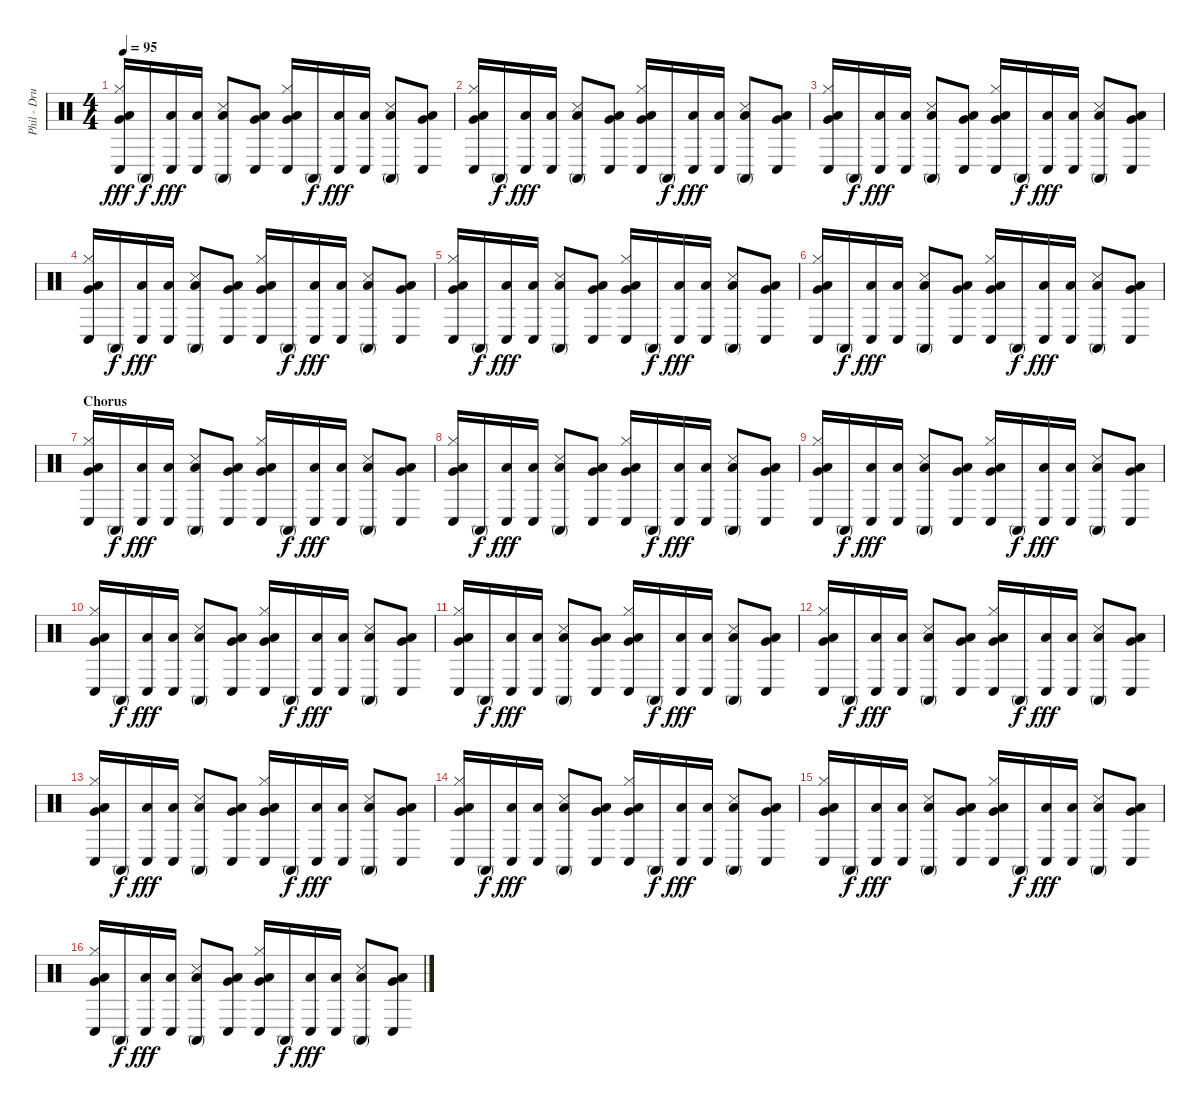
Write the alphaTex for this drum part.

\track ("Phil - Drums" "Phil - Dru") {instrument percussion}
\staff {score}
\articulation defaults
\ts (4 4)
\tempo 95
\clef neutral
\ks c
("Hi-Hat (closed)" "Conga low (hit)" "Low Floor Tom (hit)" "Very Low Tom (hit)").16{dy fff} "Conga high (mute)".16{dy f} ("Conga low (hit)" "Low Tom (hit)").16{dy fff} ("Conga low (hit)" "Low Tom (hit)").16 ("Conga high (mute)" "Snare (side stick) 3" "Low Tom (hit)").8 ("Conga low (hit)" "Low Floor Tom (hit)" "Very Low Tom (hit)").8 ("Hi-Hat (closed)" "Conga low (hit)" "Low Floor Tom (hit)" "Very Low Tom (hit)").16 "Conga high (mute)".16{dy f} ("Conga low (hit)" "Low Tom (hit)").16{dy fff} ("Conga low (hit)" "Low Tom (hit)").16 ("Conga high (mute)" "Snare (side stick) 3" "Low Tom (hit)").8 ("Conga low (hit)" "Low Floor Tom (hit)" "Very Low Tom (hit)").8 |
("Hi-Hat (closed)" "Conga low (hit)" "Low Floor Tom (hit)" "Very Low Tom (hit)").16 "Conga high (mute)".16{dy f} ("Conga low (hit)" "Low Tom (hit)").16{dy fff} ("Conga low (hit)" "Low Tom (hit)").16 ("Conga high (mute)" "Snare (side stick) 3" "Low Tom (hit)").8 ("Conga low (hit)" "Low Floor Tom (hit)" "Very Low Tom (hit)").8 ("Hi-Hat (closed)" "Conga low (hit)" "Low Floor Tom (hit)" "Very Low Tom (hit)").16 "Conga high (mute)".16{dy f} ("Conga low (hit)" "Low Tom (hit)").16{dy fff} ("Conga low (hit)" "Low Tom (hit)").16 ("Conga high (mute)" "Snare (side stick) 3" "Low Tom (hit)").8 ("Conga low (hit)" "Low Floor Tom (hit)" "Very Low Tom (hit)").8 |
("Hi-Hat (closed)" "Conga low (hit)" "Low Floor Tom (hit)" "Very Low Tom (hit)").16 "Conga high (mute)".16{dy f} ("Conga low (hit)" "Low Tom (hit)").16{dy fff} ("Conga low (hit)" "Low Tom (hit)").16 ("Conga high (mute)" "Snare (side stick) 3" "Low Tom (hit)").8 ("Conga low (hit)" "Low Floor Tom (hit)" "Very Low Tom (hit)").8 ("Hi-Hat (closed)" "Conga low (hit)" "Low Floor Tom (hit)" "Very Low Tom (hit)").16 "Conga high (mute)".16{dy f} ("Conga low (hit)" "Low Tom (hit)").16{dy fff} ("Conga low (hit)" "Low Tom (hit)").16 ("Conga high (mute)" "Snare (side stick) 3" "Low Tom (hit)").8 ("Conga low (hit)" "Low Floor Tom (hit)" "Very Low Tom (hit)").8 |
("Hi-Hat (closed)" "Conga low (hit)" "Low Floor Tom (hit)" "Very Low Tom (hit)").16 "Conga high (mute)".16{dy f} ("Conga low (hit)" "Low Tom (hit)").16{dy fff} ("Conga low (hit)" "Low Tom (hit)").16 ("Conga high (mute)" "Snare (side stick) 3" "Low Tom (hit)").8 ("Conga low (hit)" "Low Floor Tom (hit)" "Very Low Tom (hit)").8 ("Hi-Hat (closed)" "Conga low (hit)" "Low Floor Tom (hit)" "Very Low Tom (hit)").16 "Conga high (mute)".16{dy f} ("Conga low (hit)" "Low Tom (hit)").16{dy fff} ("Conga low (hit)" "Low Tom (hit)").16 ("Conga high (mute)" "Snare (side stick) 3" "Low Tom (hit)").8 ("Conga low (hit)" "Low Floor Tom (hit)" "Very Low Tom (hit)").8 |
("Hi-Hat (closed)" "Conga low (hit)" "Low Floor Tom (hit)" "Very Low Tom (hit)").16 "Conga high (mute)".16{dy f} ("Conga low (hit)" "Low Tom (hit)").16{dy fff} ("Conga low (hit)" "Low Tom (hit)").16 ("Conga high (mute)" "Snare (side stick) 3" "Low Tom (hit)").8 ("Conga low (hit)" "Low Floor Tom (hit)" "Very Low Tom (hit)").8 ("Hi-Hat (closed)" "Conga low (hit)" "Low Floor Tom (hit)" "Very Low Tom (hit)").16 "Conga high (mute)".16{dy f} ("Conga low (hit)" "Low Tom (hit)").16{dy fff} ("Conga low (hit)" "Low Tom (hit)").16 ("Conga high (mute)" "Snare (side stick) 3" "Low Tom (hit)").8 ("Conga low (hit)" "Low Floor Tom (hit)" "Very Low Tom (hit)").8 |
("Hi-Hat (closed)" "Conga low (hit)" "Low Floor Tom (hit)" "Very Low Tom (hit)").16 "Conga high (mute)".16{dy f} ("Conga low (hit)" "Low Tom (hit)").16{dy fff} ("Conga low (hit)" "Low Tom (hit)").16 ("Conga high (mute)" "Snare (side stick) 3" "Low Tom (hit)").8 ("Conga low (hit)" "Low Floor Tom (hit)" "Very Low Tom (hit)").8 ("Hi-Hat (closed)" "Conga low (hit)" "Low Floor Tom (hit)" "Very Low Tom (hit)").16 "Conga high (mute)".16{dy f} ("Conga low (hit)" "Low Tom (hit)").16{dy fff} ("Conga low (hit)" "Low Tom (hit)").16 ("Conga high (mute)" "Snare (side stick) 3" "Low Tom (hit)").8 ("Conga low (hit)" "Low Floor Tom (hit)" "Very Low Tom (hit)").8 |
\section ("" "Chorus")
("Hi-Hat (closed)" "Conga low (hit)" "Low Floor Tom (hit)" "Very Low Tom (hit)").16 "Conga high (mute)".16{dy f} ("Conga low (hit)" "Low Tom (hit)").16{dy fff} ("Conga low (hit)" "Low Tom (hit)").16 ("Conga high (mute)" "Snare (side stick) 3" "Low Tom (hit)").8 ("Conga low (hit)" "Low Floor Tom (hit)" "Very Low Tom (hit)").8 ("Hi-Hat (closed)" "Conga low (hit)" "Low Floor Tom (hit)" "Very Low Tom (hit)").16 "Conga high (mute)".16{dy f} ("Conga low (hit)" "Low Tom (hit)").16{dy fff} ("Conga low (hit)" "Low Tom (hit)").16 ("Conga high (mute)" "Snare (side stick) 3" "Low Tom (hit)").8 ("Conga low (hit)" "Low Floor Tom (hit)" "Very Low Tom (hit)").8 |
("Hi-Hat (closed)" "Conga low (hit)" "Low Floor Tom (hit)" "Very Low Tom (hit)").16 "Conga high (mute)".16{dy f} ("Conga low (hit)" "Low Tom (hit)").16{dy fff} ("Conga low (hit)" "Low Tom (hit)").16 ("Conga high (mute)" "Snare (side stick) 3" "Low Tom (hit)").8 ("Conga low (hit)" "Low Floor Tom (hit)" "Very Low Tom (hit)").8 ("Hi-Hat (closed)" "Conga low (hit)" "Low Floor Tom (hit)" "Very Low Tom (hit)").16 "Conga high (mute)".16{dy f} ("Conga low (hit)" "Low Tom (hit)").16{dy fff} ("Conga low (hit)" "Low Tom (hit)").16 ("Conga high (mute)" "Snare (side stick) 3" "Low Tom (hit)").8 ("Conga low (hit)" "Low Floor Tom (hit)" "Very Low Tom (hit)").8 |
("Hi-Hat (closed)" "Conga low (hit)" "Low Floor Tom (hit)" "Very Low Tom (hit)").16 "Conga high (mute)".16{dy f} ("Conga low (hit)" "Low Tom (hit)").16{dy fff} ("Conga low (hit)" "Low Tom (hit)").16 ("Conga high (mute)" "Snare (side stick) 3" "Low Tom (hit)").8 ("Conga low (hit)" "Low Floor Tom (hit)" "Very Low Tom (hit)").8 ("Hi-Hat (closed)" "Conga low (hit)" "Low Floor Tom (hit)" "Very Low Tom (hit)").16 "Conga high (mute)".16{dy f} ("Conga low (hit)" "Low Tom (hit)").16{dy fff} ("Conga low (hit)" "Low Tom (hit)").16 ("Conga high (mute)" "Snare (side stick) 3" "Low Tom (hit)").8 ("Conga low (hit)" "Low Floor Tom (hit)" "Very Low Tom (hit)").8 |
("Hi-Hat (closed)" "Conga low (hit)" "Low Floor Tom (hit)" "Very Low Tom (hit)").16 "Conga high (mute)".16{dy f} ("Conga low (hit)" "Low Tom (hit)").16{dy fff} ("Conga low (hit)" "Low Tom (hit)").16 ("Conga high (mute)" "Snare (side stick) 3" "Low Tom (hit)").8 ("Conga low (hit)" "Low Floor Tom (hit)" "Very Low Tom (hit)").8 ("Hi-Hat (closed)" "Conga low (hit)" "Low Floor Tom (hit)" "Very Low Tom (hit)").16 "Conga high (mute)".16{dy f} ("Conga low (hit)" "Low Tom (hit)").16{dy fff} ("Conga low (hit)" "Low Tom (hit)").16 ("Conga high (mute)" "Snare (side stick) 3" "Low Tom (hit)").8 ("Conga low (hit)" "Low Floor Tom (hit)" "Very Low Tom (hit)").8 |
("Hi-Hat (closed)" "Conga low (hit)" "Low Floor Tom (hit)" "Very Low Tom (hit)").16 "Conga high (mute)".16{dy f} ("Conga low (hit)" "Low Tom (hit)").16{dy fff} ("Conga low (hit)" "Low Tom (hit)").16 ("Conga high (mute)" "Snare (side stick) 3" "Low Tom (hit)").8 ("Conga low (hit)" "Low Floor Tom (hit)" "Very Low Tom (hit)").8 ("Hi-Hat (closed)" "Conga low (hit)" "Low Floor Tom (hit)" "Very Low Tom (hit)").16 "Conga high (mute)".16{dy f} ("Conga low (hit)" "Low Tom (hit)").16{dy fff} ("Conga low (hit)" "Low Tom (hit)").16 ("Conga high (mute)" "Snare (side stick) 3" "Low Tom (hit)").8 ("Conga low (hit)" "Low Floor Tom (hit)" "Very Low Tom (hit)").8 |
("Hi-Hat (closed)" "Conga low (hit)" "Low Floor Tom (hit)" "Very Low Tom (hit)").16 "Conga high (mute)".16{dy f} ("Conga low (hit)" "Low Tom (hit)").16{dy fff} ("Conga low (hit)" "Low Tom (hit)").16 ("Conga high (mute)" "Snare (side stick) 3" "Low Tom (hit)").8 ("Conga low (hit)" "Low Floor Tom (hit)" "Very Low Tom (hit)").8 ("Hi-Hat (closed)" "Conga low (hit)" "Low Floor Tom (hit)" "Very Low Tom (hit)").16 "Conga high (mute)".16{dy f} ("Conga low (hit)" "Low Tom (hit)").16{dy fff} ("Conga low (hit)" "Low Tom (hit)").16 ("Conga high (mute)" "Snare (side stick) 3" "Low Tom (hit)").8 ("Conga low (hit)" "Low Floor Tom (hit)" "Very Low Tom (hit)").8 |
("Hi-Hat (closed)" "Conga low (hit)" "Low Floor Tom (hit)" "Very Low Tom (hit)").16 "Conga high (mute)".16{dy f} ("Conga low (hit)" "Low Tom (hit)").16{dy fff} ("Conga low (hit)" "Low Tom (hit)").16 ("Conga high (mute)" "Snare (side stick) 3" "Low Tom (hit)").8 ("Conga low (hit)" "Low Floor Tom (hit)" "Very Low Tom (hit)").8 ("Hi-Hat (closed)" "Conga low (hit)" "Low Floor Tom (hit)" "Very Low Tom (hit)").16 "Conga high (mute)".16{dy f} ("Conga low (hit)" "Low Tom (hit)").16{dy fff} ("Conga low (hit)" "Low Tom (hit)").16 ("Conga high (mute)" "Snare (side stick) 3" "Low Tom (hit)").8 ("Conga low (hit)" "Low Floor Tom (hit)" "Very Low Tom (hit)").8 |
("Hi-Hat (closed)" "Conga low (hit)" "Low Floor Tom (hit)" "Very Low Tom (hit)").16 "Conga high (mute)".16{dy f} ("Conga low (hit)" "Low Tom (hit)").16{dy fff} ("Conga low (hit)" "Low Tom (hit)").16 ("Conga high (mute)" "Snare (side stick) 3" "Low Tom (hit)").8 ("Conga low (hit)" "Low Floor Tom (hit)" "Very Low Tom (hit)").8 ("Hi-Hat (closed)" "Conga low (hit)" "Low Floor Tom (hit)" "Very Low Tom (hit)").16 "Conga high (mute)".16{dy f} ("Conga low (hit)" "Low Tom (hit)").16{dy fff} ("Conga low (hit)" "Low Tom (hit)").16 ("Conga high (mute)" "Snare (side stick) 3" "Low Tom (hit)").8 ("Conga low (hit)" "Low Floor Tom (hit)" "Very Low Tom (hit)").8 |
("Hi-Hat (closed)" "Conga low (hit)" "Low Floor Tom (hit)" "Very Low Tom (hit)").16 "Conga high (mute)".16{dy f} ("Conga low (hit)" "Low Tom (hit)").16{dy fff} ("Conga low (hit)" "Low Tom (hit)").16 ("Conga high (mute)" "Snare (side stick) 3" "Low Tom (hit)").8 ("Conga low (hit)" "Low Floor Tom (hit)" "Very Low Tom (hit)").8 ("Hi-Hat (closed)" "Conga low (hit)" "Low Floor Tom (hit)" "Very Low Tom (hit)").16 "Conga high (mute)".16{dy f} ("Conga low (hit)" "Low Tom (hit)").16{dy fff} ("Conga low (hit)" "Low Tom (hit)").16 ("Conga high (mute)" "Snare (side stick) 3" "Low Tom (hit)").8 ("Conga low (hit)" "Low Floor Tom (hit)" "Very Low Tom (hit)").8 |
("Hi-Hat (closed)" "Conga low (hit)" "Low Floor Tom (hit)" "Very Low Tom (hit)").16 "Conga high (mute)".16{dy f} ("Conga low (hit)" "Low Tom (hit)").16{dy fff} ("Conga low (hit)" "Low Tom (hit)").16 ("Conga high (mute)" "Snare (side stick) 3" "Low Tom (hit)").8 ("Conga low (hit)" "Low Floor Tom (hit)" "Very Low Tom (hit)").8 ("Hi-Hat (closed)" "Conga low (hit)" "Low Floor Tom (hit)" "Very Low Tom (hit)").16 "Conga high (mute)".16{dy f} ("Conga low (hit)" "Low Tom (hit)").16{dy fff} ("Conga low (hit)" "Low Tom (hit)").16 ("Conga high (mute)" "Snare (side stick) 3" "Low Tom (hit)").8 ("Conga low (hit)" "Low Floor Tom (hit)" "Very Low Tom (hit)").8
